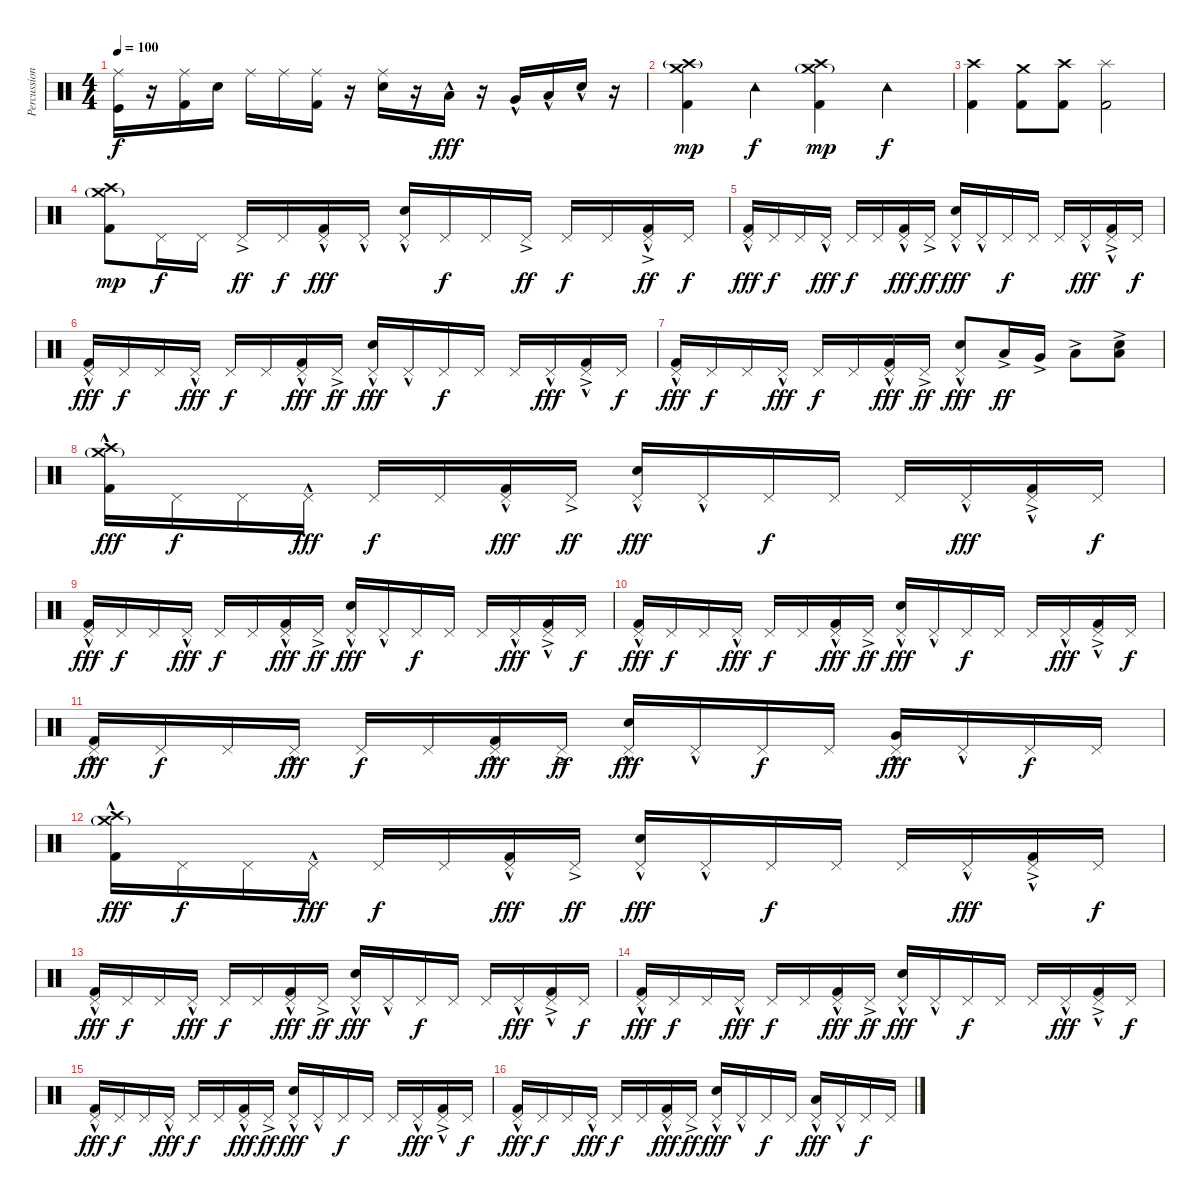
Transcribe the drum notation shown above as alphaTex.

\track ("Percussion" "Percussion") {instrument percussion}
\staff {score}
\articulation defaults
\ts (4 4)
\tempo 100
\clef neutral
\ks c
("Ride (middle)" "Kick (hit)").16{dy f} r.16 ("Ride (middle)" "Kick (hit) 2").16 "Electric Snare (hit)".16 "Ride (middle)".16 "Ride (middle)".16 ("Ride (middle)" "Kick (hit) 2").16 r.16 ("Ride (middle)" "Electric Snare (hit)").16 r.16 "Low Tom (hit)"{hac}.16{dy fff} r.16 "Very Low Tom (hit)"{hac}.16 "Low Floor Tom (hit)"{hac}.16 "Electric Snare (hit)"{hac}.16 r.16 |
("Crash high (hit)"{g} "Crash medium (hit)" "Kick (hit) 2").4{dy mp} "Tambourine (hit)".4{dy f} ("Crash high (hit)" "Crash medium (hit)"{g} "Kick (hit) 2").4{dy mp} "Tambourine (hit)".4{dy f} |
("Crash high (hit)" "Kick (hit) 2").4 ("Crash medium (hit)" "Kick (hit) 2").8 ("Crash high (hit)" "Kick (hit) 2").8 ("Splash (hit)" "Kick (hit) 2").2 |
("Crash high (hit)" "Crash medium (hit)"{g} "Kick (hit) 2").8{dy mp} "Pedal Hi-Hat (hit)".16{dy f} "Pedal Hi-Hat (hit)".16 "Pedal Hi-Hat (hit)"{ac}.16{dy ff} "Pedal Hi-Hat (hit)".16{dy f} ("Pedal Hi-Hat (hit)" "Kick (hit) 2"{hac}).16{dy fff} "Pedal Hi-Hat (hit)"{hac}.16 ("Pedal Hi-Hat (hit)" "Electric Snare (hit)"{hac}).16 "Pedal Hi-Hat (hit)".16{dy f} "Pedal Hi-Hat (hit)".16 "Pedal Hi-Hat (hit)"{ac}.16{dy ff} "Pedal Hi-Hat (hit)".16{dy f} "Pedal Hi-Hat (hit)".16 ("Pedal Hi-Hat (hit)"{hac} "Kick (hit) 2"{ac}).16{dy ff} "Pedal Hi-Hat (hit)".16{dy f} |
("Pedal Hi-Hat (hit)" "Kick (hit) 2"{hac}).16{dy fff} "Pedal Hi-Hat (hit)".16{dy f} "Pedal Hi-Hat (hit)".16 "Pedal Hi-Hat (hit)"{hac}.16{dy fff} "Pedal Hi-Hat (hit)".16{dy f} "Pedal Hi-Hat (hit)".16 ("Pedal Hi-Hat (hit)" "Kick (hit) 2"{hac}).16{dy fff} "Pedal Hi-Hat (hit)"{ac}.16{dy ff} ("Pedal Hi-Hat (hit)" "Electric Snare (hit)"{hac}).16{dy fff} "Pedal Hi-Hat (hit)"{hac}.16 "Pedal Hi-Hat (hit)".16{dy f} "Pedal Hi-Hat (hit)".16 "Pedal Hi-Hat (hit)".16 "Pedal Hi-Hat (hit)"{hac}.16{dy fff} ("Pedal Hi-Hat (hit)"{ac} "Kick (hit) 2"{hac}).16 "Pedal Hi-Hat (hit)".16{dy f} |
("Pedal Hi-Hat (hit)" "Kick (hit) 2"{hac}).16{dy fff} "Pedal Hi-Hat (hit)".16{dy f} "Pedal Hi-Hat (hit)".16 "Pedal Hi-Hat (hit)"{hac}.16{dy fff} "Pedal Hi-Hat (hit)".16{dy f} "Pedal Hi-Hat (hit)".16 ("Pedal Hi-Hat (hit)" "Kick (hit) 2"{hac}).16{dy fff} "Pedal Hi-Hat (hit)"{ac}.16{dy ff} ("Pedal Hi-Hat (hit)" "Electric Snare (hit)"{hac}).16{dy fff} "Pedal Hi-Hat (hit)"{hac}.16 "Pedal Hi-Hat (hit)".16{dy f} "Pedal Hi-Hat (hit)".16 "Pedal Hi-Hat (hit)".16 "Pedal Hi-Hat (hit)"{hac}.16{dy fff} ("Pedal Hi-Hat (hit)"{ac} "Kick (hit) 2"{hac}).16 "Pedal Hi-Hat (hit)".16{dy f} |
("Pedal Hi-Hat (hit)" "Kick (hit) 2"{hac}).16{dy fff} "Pedal Hi-Hat (hit)".16{dy f} "Pedal Hi-Hat (hit)".16 "Pedal Hi-Hat (hit)"{hac}.16{dy fff} "Pedal Hi-Hat (hit)".16{dy f} "Pedal Hi-Hat (hit)".16 ("Pedal Hi-Hat (hit)" "Kick (hit) 2"{hac}).16{dy fff} "Pedal Hi-Hat (hit)"{ac}.16{dy ff} ("Pedal Hi-Hat (hit)" "Electric Snare (hit)"{hac}).8{dy fff} "Low Tom (hit)"{ac}.16{dy ff} "Very Low Tom (hit)"{ac}.16 "Low Floor Tom (hit)"{ac}.8 ("Electric Snare (hit)"{ac} "Low Floor Tom (hit)").8 |
("Crash high (hit)" "Crash medium (hit)"{g} "Kick (hit) 2"{hac}).16{dy fff} "Pedal Hi-Hat (hit)".16{dy f} "Pedal Hi-Hat (hit)".16 "Pedal Hi-Hat (hit)"{hac}.16{dy fff} "Pedal Hi-Hat (hit)".16{dy f} "Pedal Hi-Hat (hit)".16 ("Pedal Hi-Hat (hit)" "Kick (hit) 2"{hac}).16{dy fff} "Pedal Hi-Hat (hit)"{ac}.16{dy ff} ("Pedal Hi-Hat (hit)" "Electric Snare (hit)"{hac}).16{dy fff} "Pedal Hi-Hat (hit)"{hac}.16 "Pedal Hi-Hat (hit)".16{dy f} "Pedal Hi-Hat (hit)".16 "Pedal Hi-Hat (hit)".16 "Pedal Hi-Hat (hit)"{hac}.16{dy fff} ("Pedal Hi-Hat (hit)"{ac} "Kick (hit) 2"{hac}).16 "Pedal Hi-Hat (hit)".16{dy f} |
("Pedal Hi-Hat (hit)" "Kick (hit) 2"{hac}).16{dy fff} "Pedal Hi-Hat (hit)".16{dy f} "Pedal Hi-Hat (hit)".16 "Pedal Hi-Hat (hit)"{hac}.16{dy fff} "Pedal Hi-Hat (hit)".16{dy f} "Pedal Hi-Hat (hit)".16 ("Pedal Hi-Hat (hit)" "Kick (hit) 2"{hac}).16{dy fff} "Pedal Hi-Hat (hit)"{ac}.16{dy ff} ("Pedal Hi-Hat (hit)" "Electric Snare (hit)"{hac}).16{dy fff} "Pedal Hi-Hat (hit)"{hac}.16 "Pedal Hi-Hat (hit)".16{dy f} "Pedal Hi-Hat (hit)".16 "Pedal Hi-Hat (hit)".16 "Pedal Hi-Hat (hit)"{hac}.16{dy fff} ("Pedal Hi-Hat (hit)"{ac} "Kick (hit) 2"{hac}).16 "Pedal Hi-Hat (hit)".16{dy f} |
("Pedal Hi-Hat (hit)" "Kick (hit) 2"{hac}).16{dy fff} "Pedal Hi-Hat (hit)".16{dy f} "Pedal Hi-Hat (hit)".16 "Pedal Hi-Hat (hit)"{hac}.16{dy fff} "Pedal Hi-Hat (hit)".16{dy f} "Pedal Hi-Hat (hit)".16 ("Pedal Hi-Hat (hit)" "Kick (hit) 2"{hac}).16{dy fff} "Pedal Hi-Hat (hit)"{ac}.16{dy ff} ("Pedal Hi-Hat (hit)" "Electric Snare (hit)"{hac}).16{dy fff} "Pedal Hi-Hat (hit)"{hac}.16 "Pedal Hi-Hat (hit)".16{dy f} "Pedal Hi-Hat (hit)".16 "Pedal Hi-Hat (hit)".16 "Pedal Hi-Hat (hit)"{hac}.16{dy fff} ("Pedal Hi-Hat (hit)"{ac} "Kick (hit) 2"{hac}).16 "Pedal Hi-Hat (hit)".16{dy f} |
("Pedal Hi-Hat (hit)" "Kick (hit) 2"{hac}).16{dy fff} "Pedal Hi-Hat (hit)".16{dy f} "Pedal Hi-Hat (hit)".16 "Pedal Hi-Hat (hit)"{hac}.16{dy fff} "Pedal Hi-Hat (hit)".16{dy f} "Pedal Hi-Hat (hit)".16 ("Pedal Hi-Hat (hit)" "Kick (hit) 2"{hac}).16{dy fff} "Pedal Hi-Hat (hit)"{ac}.16{dy ff} ("Pedal Hi-Hat (hit)" "Electric Snare (hit)"{hac}).16{dy fff} "Pedal Hi-Hat (hit)"{hac}.16 "Pedal Hi-Hat (hit)".16{dy f} "Pedal Hi-Hat (hit)".16 ("Pedal Hi-Hat (hit)" "Very Low Tom (hit)"{hac}).16{dy fff} "Pedal Hi-Hat (hit)"{hac}.16 "Pedal Hi-Hat (hit)".16{dy f} "Pedal Hi-Hat (hit)".16 |
("Crash high (hit)" "Crash medium (hit)"{g} "Kick (hit) 2"{hac}).16{dy fff} "Pedal Hi-Hat (hit)".16{dy f} "Pedal Hi-Hat (hit)".16 "Pedal Hi-Hat (hit)"{hac}.16{dy fff} "Pedal Hi-Hat (hit)".16{dy f} "Pedal Hi-Hat (hit)".16 ("Pedal Hi-Hat (hit)" "Kick (hit) 2"{hac}).16{dy fff} "Pedal Hi-Hat (hit)"{ac}.16{dy ff} ("Pedal Hi-Hat (hit)" "Electric Snare (hit)"{hac}).16{dy fff} "Pedal Hi-Hat (hit)"{hac}.16 "Pedal Hi-Hat (hit)".16{dy f} "Pedal Hi-Hat (hit)".16 "Pedal Hi-Hat (hit)".16 "Pedal Hi-Hat (hit)"{hac}.16{dy fff} ("Pedal Hi-Hat (hit)"{ac} "Kick (hit) 2"{hac}).16 "Pedal Hi-Hat (hit)".16{dy f} |
("Pedal Hi-Hat (hit)" "Kick (hit) 2"{hac}).16{dy fff} "Pedal Hi-Hat (hit)".16{dy f} "Pedal Hi-Hat (hit)".16 "Pedal Hi-Hat (hit)"{hac}.16{dy fff} "Pedal Hi-Hat (hit)".16{dy f} "Pedal Hi-Hat (hit)".16 ("Pedal Hi-Hat (hit)" "Kick (hit) 2"{hac}).16{dy fff} "Pedal Hi-Hat (hit)"{ac}.16{dy ff} ("Pedal Hi-Hat (hit)" "Electric Snare (hit)"{hac}).16{dy fff} "Pedal Hi-Hat (hit)"{hac}.16 "Pedal Hi-Hat (hit)".16{dy f} "Pedal Hi-Hat (hit)".16 "Pedal Hi-Hat (hit)".16 "Pedal Hi-Hat (hit)"{hac}.16{dy fff} ("Pedal Hi-Hat (hit)"{ac} "Kick (hit) 2"{hac}).16 "Pedal Hi-Hat (hit)".16{dy f} |
("Pedal Hi-Hat (hit)" "Kick (hit) 2"{hac}).16{dy fff} "Pedal Hi-Hat (hit)".16{dy f} "Pedal Hi-Hat (hit)".16 "Pedal Hi-Hat (hit)"{hac}.16{dy fff} "Pedal Hi-Hat (hit)".16{dy f} "Pedal Hi-Hat (hit)".16 ("Pedal Hi-Hat (hit)" "Kick (hit) 2"{hac}).16{dy fff} "Pedal Hi-Hat (hit)"{ac}.16{dy ff} ("Pedal Hi-Hat (hit)" "Electric Snare (hit)"{hac}).16{dy fff} "Pedal Hi-Hat (hit)"{hac}.16 "Pedal Hi-Hat (hit)".16{dy f} "Pedal Hi-Hat (hit)".16 "Pedal Hi-Hat (hit)".16 "Pedal Hi-Hat (hit)"{hac}.16{dy fff} ("Pedal Hi-Hat (hit)"{ac} "Kick (hit) 2"{hac}).16 "Pedal Hi-Hat (hit)".16{dy f} |
("Pedal Hi-Hat (hit)" "Kick (hit) 2"{hac}).16{dy fff} "Pedal Hi-Hat (hit)".16{dy f} "Pedal Hi-Hat (hit)".16 "Pedal Hi-Hat (hit)"{hac}.16{dy fff} "Pedal Hi-Hat (hit)".16{dy f} "Pedal Hi-Hat (hit)".16 ("Pedal Hi-Hat (hit)" "Kick (hit) 2"{hac}).16{dy fff} "Pedal Hi-Hat (hit)"{ac}.16{dy ff} ("Pedal Hi-Hat (hit)" "Electric Snare (hit)"{hac}).16{dy fff} "Pedal Hi-Hat (hit)"{hac}.16 "Pedal Hi-Hat (hit)".16{dy f} "Pedal Hi-Hat (hit)".16 "Pedal Hi-Hat (hit)".16 "Pedal Hi-Hat (hit)"{hac}.16{dy fff} ("Pedal Hi-Hat (hit)"{ac} "Kick (hit) 2"{hac}).16 "Pedal Hi-Hat (hit)".16{dy f} |
("Pedal Hi-Hat (hit)" "Kick (hit) 2"{hac}).16{dy fff} "Pedal Hi-Hat (hit)".16{dy f} "Pedal Hi-Hat (hit)".16 "Pedal Hi-Hat (hit)"{hac}.16{dy fff} "Pedal Hi-Hat (hit)".16{dy f} "Pedal Hi-Hat (hit)".16 ("Pedal Hi-Hat (hit)" "Kick (hit) 2"{hac}).16{dy fff} "Pedal Hi-Hat (hit)"{ac}.16{dy ff} ("Pedal Hi-Hat (hit)" "Electric Snare (hit)"{hac}).16{dy fff} "Pedal Hi-Hat (hit)"{hac}.16 "Pedal Hi-Hat (hit)".16{dy f} "Pedal Hi-Hat (hit)".16 ("Pedal Hi-Hat (hit)" "Low Tom (hit)"{hac}).16{dy fff} "Pedal Hi-Hat (hit)"{hac}.16 "Pedal Hi-Hat (hit)".16{dy f} "Pedal Hi-Hat (hit)".16
